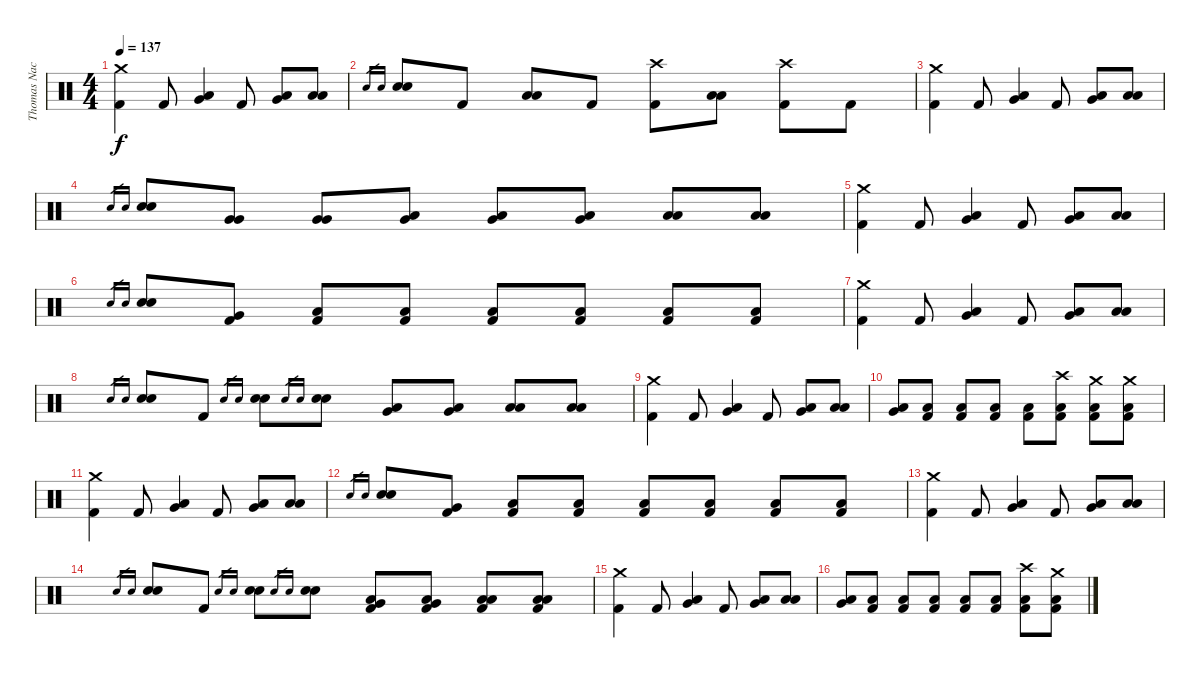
\track ("Thomas Nack" "Thomas Nac") {instrument percussion}
\staff {score}
\articulation defaults
\ts (4 4)
\tempo 137
\clef neutral
\ks c
("Crash medium (hit)" "Kick (hit) 2").4{dy f} "Kick (hit) 2".8 ("Very Low Tom (hit)" "Low Floor Tom (hit)").4 "Kick (hit) 2".8 ("Very Low Tom (hit)" "Low Floor Tom (hit)").8 ("Low Floor Tom (hit)" "Low Floor Tom (hit)").8 |
"Electric Snare (hit)".16{gr} "Electric Snare (hit)".16{gr} ("Electric Snare (hit)" "Electric Snare (hit)").8 "Kick (hit) 2".8 ("Low Floor Tom (hit)" "Low Floor Tom (hit)").8 "Kick (hit) 2".8 ("Crash high (hit)" "Kick (hit) 2").8 ("Low Floor Tom (hit)" "Low Floor Tom (hit)").8 ("Crash high (hit)" "Kick (hit) 2").8 "Kick (hit) 2".8 |
("Crash medium (hit)" "Kick (hit) 2").4 "Kick (hit) 2".8 ("Very Low Tom (hit)" "Low Floor Tom (hit)").4 "Kick (hit) 2".8 ("Very Low Tom (hit)" "Low Floor Tom (hit)").8 ("Low Floor Tom (hit)" "Low Floor Tom (hit)").8 |
"Electric Snare (hit)".16{gr} "Electric Snare (hit)".16{gr} ("Electric Snare (hit)" "Electric Snare (hit)").8 ("Very Low Tom (hit)" "Very Low Tom (hit)").8 ("Very Low Tom (hit)" "Very Low Tom (hit)").8 ("Very Low Tom (hit)" "Low Floor Tom (hit)").8 ("Very Low Tom (hit)" "Low Floor Tom (hit)").8 ("Very Low Tom (hit)" "Low Floor Tom (hit)").8 ("Low Floor Tom (hit)" "Low Floor Tom (hit)").8 ("Low Floor Tom (hit)" "Low Floor Tom (hit)").8 |
("Crash medium (hit)" "Kick (hit) 2").4 "Kick (hit) 2".8 ("Very Low Tom (hit)" "Low Floor Tom (hit)").4 "Kick (hit) 2".8 ("Very Low Tom (hit)" "Low Floor Tom (hit)").8 ("Low Floor Tom (hit)" "Low Floor Tom (hit)").8 |
"Electric Snare (hit)".16{gr} "Electric Snare (hit)".16{gr} ("Electric Snare (hit)" "Electric Snare (hit)").8 ("Very Low Tom (hit)" "Kick (hit) 2").8 ("Low Floor Tom (hit)" "Kick (hit) 2").8 ("Low Floor Tom (hit)" "Kick (hit) 2").8 ("Low Floor Tom (hit)" "Kick (hit) 2").8 ("Low Floor Tom (hit)" "Kick (hit) 2").8 ("Low Floor Tom (hit)" "Kick (hit) 2").8 ("Low Floor Tom (hit)" "Kick (hit) 2").8 |
("Crash medium (hit)" "Kick (hit) 2").4 "Kick (hit) 2".8 ("Very Low Tom (hit)" "Low Floor Tom (hit)").4 "Kick (hit) 2".8 ("Very Low Tom (hit)" "Low Floor Tom (hit)").8 ("Low Floor Tom (hit)" "Low Floor Tom (hit)").8 |
"Electric Snare (hit)".16{gr} "Electric Snare (hit)".16{gr} ("Electric Snare (hit)" "Electric Snare (hit)").8 "Kick (hit) 2".8 "Electric Snare (hit)".16{gr} "Electric Snare (hit)".16{gr} ("Electric Snare (hit)" "Electric Snare (hit)").8 "Electric Snare (hit)".16{gr} "Electric Snare (hit)".16{gr} ("Electric Snare (hit)" "Electric Snare (hit)").8 ("Very Low Tom (hit)" "Low Floor Tom (hit)").8 ("Very Low Tom (hit)" "Low Floor Tom (hit)").8 ("Low Floor Tom (hit)" "Low Floor Tom (hit)").8 ("Low Floor Tom (hit)" "Low Floor Tom (hit)").8 |
("Crash medium (hit)" "Kick (hit) 2").4 "Kick (hit) 2".8 ("Very Low Tom (hit)" "Low Floor Tom (hit)").4 "Kick (hit) 2".8 ("Very Low Tom (hit)" "Low Floor Tom (hit)").8 ("Low Floor Tom (hit)" "Low Floor Tom (hit)").8 |
("Very Low Tom (hit)" "Low Floor Tom (hit)").8 ("Low Floor Tom (hit)" "Kick (hit) 2").8 ("Low Floor Tom (hit)" "Kick (hit) 2").8 ("Low Floor Tom (hit)" "Kick (hit) 2").8 ("Low Floor Tom (hit)" "Kick (hit) 2").8 ("Crash high (hit)" "Low Floor Tom (hit)" "Kick (hit) 2").8 ("Crash medium (hit)" "Low Floor Tom (hit)" "Kick (hit) 2").8 ("Crash medium (hit)" "Low Floor Tom (hit)" "Kick (hit) 2").8 |
("Crash medium (hit)" "Kick (hit) 2").4 "Kick (hit) 2".8 ("Very Low Tom (hit)" "Low Floor Tom (hit)").4 "Kick (hit) 2".8 ("Very Low Tom (hit)" "Low Floor Tom (hit)").8 ("Low Floor Tom (hit)" "Low Floor Tom (hit)").8 |
"Electric Snare (hit)".16{gr} "Electric Snare (hit)".16{gr} ("Electric Snare (hit)" "Electric Snare (hit)").8 ("Very Low Tom (hit)" "Kick (hit) 2").8 ("Low Floor Tom (hit)" "Kick (hit) 2").8 ("Low Floor Tom (hit)" "Kick (hit) 2").8 ("Low Floor Tom (hit)" "Kick (hit) 2").8 ("Low Floor Tom (hit)" "Kick (hit) 2").8 ("Low Floor Tom (hit)" "Kick (hit) 2").8 ("Low Floor Tom (hit)" "Kick (hit) 2").8 |
("Crash medium (hit)" "Kick (hit) 2").4 "Kick (hit) 2".8 ("Very Low Tom (hit)" "Low Floor Tom (hit)").4 "Kick (hit) 2".8 ("Very Low Tom (hit)" "Low Floor Tom (hit)").8 ("Low Floor Tom (hit)" "Low Floor Tom (hit)").8 |
"Electric Snare (hit)".16{gr} "Electric Snare (hit)".16{gr} ("Electric Snare (hit)" "Electric Snare (hit)").8 "Kick (hit) 2".8 "Electric Snare (hit)".16{gr} "Electric Snare (hit)".16{gr} ("Electric Snare (hit)" "Electric Snare (hit)").8 "Electric Snare (hit)".16{gr} "Electric Snare (hit)".16{gr} ("Electric Snare (hit)" "Electric Snare (hit)").8 ("Very Low Tom (hit)" "Low Floor Tom (hit)" "Kick (hit) 2").8 ("Very Low Tom (hit)" "Low Floor Tom (hit)" "Kick (hit) 2").8 ("Low Floor Tom (hit)" "Low Floor Tom (hit)" "Kick (hit) 2").8 ("Low Floor Tom (hit)" "Low Floor Tom (hit)" "Kick (hit) 2").8 |
("Crash medium (hit)" "Kick (hit) 2").4 "Kick (hit) 2".8 ("Very Low Tom (hit)" "Low Floor Tom (hit)").4 "Kick (hit) 2".8 ("Very Low Tom (hit)" "Low Floor Tom (hit)").8 ("Low Floor Tom (hit)" "Low Floor Tom (hit)").8 |
("Very Low Tom (hit)" "Low Floor Tom (hit)").8 ("Low Floor Tom (hit)" "Kick (hit) 2").8 ("Low Floor Tom (hit)" "Kick (hit) 2").8 ("Low Floor Tom (hit)" "Kick (hit) 2").8 ("Low Floor Tom (hit)" "Kick (hit) 2").8 ("Low Floor Tom (hit)" "Kick (hit) 2").8 ("Crash high (hit)" "Low Floor Tom (hit)" "Kick (hit) 2").8 ("Crash medium (hit)" "Low Floor Tom (hit)" "Kick (hit) 2").8
